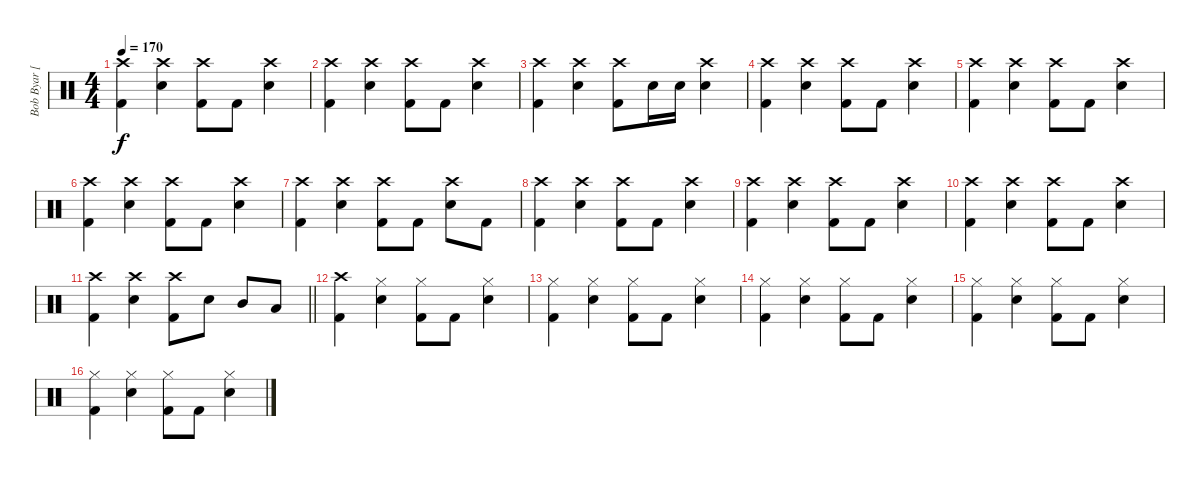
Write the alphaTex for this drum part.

\track ("Bob Byar [Drums]" "Bob Byar [") {instrument percussion}
\staff {score}
\articulation defaults
\ts (4 4)
\tempo 170
\clef neutral
\ks c
("Crash high (hit)" "Kick (hit) 2").4{dy f} ("Crash high (hit)" "Electric Snare (hit)").4 ("Crash high (hit)" "Kick (hit) 2").8 "Kick (hit) 2".8 ("Crash high (hit)" "Electric Snare (hit)").4 |
("Crash high (hit)" "Kick (hit) 2").4 ("Crash high (hit)" "Electric Snare (hit)").4 ("Crash high (hit)" "Kick (hit) 2").8 "Kick (hit) 2".8 ("Crash high (hit)" "Electric Snare (hit)").4 |
("Crash high (hit)" "Kick (hit) 2").4 ("Crash high (hit)" "Electric Snare (hit)").4 ("Crash high (hit)" "Kick (hit) 2").8 "Electric Snare (hit)".16 "Electric Snare (hit)".16 ("Crash high (hit)" "Electric Snare (hit)").4 |
("Crash high (hit)" "Kick (hit) 2").4 ("Crash high (hit)" "Electric Snare (hit)").4 ("Crash high (hit)" "Kick (hit) 2").8 "Kick (hit) 2".8 ("Crash high (hit)" "Electric Snare (hit)").4 |
("Crash high (hit)" "Kick (hit) 2").4 ("Crash high (hit)" "Electric Snare (hit)").4 ("Crash high (hit)" "Kick (hit) 2").8 "Kick (hit) 2".8 ("Crash high (hit)" "Electric Snare (hit)").4 |
("Crash high (hit)" "Kick (hit) 2").4 ("Crash high (hit)" "Electric Snare (hit)").4 ("Crash high (hit)" "Kick (hit) 2").8 "Kick (hit) 2".8 ("Crash high (hit)" "Electric Snare (hit)").4 |
("Crash high (hit)" "Kick (hit) 2").4 ("Crash high (hit)" "Electric Snare (hit)").4 ("Crash high (hit)" "Kick (hit) 2").8 "Kick (hit) 2".8 ("Crash high (hit)" "Electric Snare (hit)").8 "Kick (hit) 2".8 |
("Crash high (hit)" "Kick (hit) 2").4 ("Crash high (hit)" "Electric Snare (hit)").4 ("Crash high (hit)" "Kick (hit) 2").8 "Kick (hit) 2".8 ("Crash high (hit)" "Electric Snare (hit)").4 |
("Crash high (hit)" "Kick (hit) 2").4 ("Crash high (hit)" "Electric Snare (hit)").4 ("Crash high (hit)" "Kick (hit) 2").8 "Kick (hit) 2".8 ("Crash high (hit)" "Electric Snare (hit)").4 |
("Crash high (hit)" "Kick (hit) 2").4 ("Crash high (hit)" "Electric Snare (hit)").4 ("Crash high (hit)" "Kick (hit) 2").8 "Kick (hit) 2".8 ("Crash high (hit)" "Electric Snare (hit)").4 |
\barLineRight lightlight
("Crash high (hit)" "Kick (hit) 2").4 ("Crash high (hit)" "Electric Snare (hit)").4 ("Crash high (hit)" "Kick (hit) 2").8 "Electric Snare (hit)".8 "Mid Tom (hit)".8 "Low Tom (hit)".8 |
("Crash high (hit)" "Kick (hit) 2").4 ("Hi-Hat (closed)" "Electric Snare (hit)").4 ("Hi-Hat (closed)" "Kick (hit) 2").8 "Kick (hit) 2".8 ("Hi-Hat (closed)" "Electric Snare (hit)").4 |
("Hi-Hat (closed)" "Kick (hit) 2").4 ("Hi-Hat (closed)" "Electric Snare (hit)").4 ("Hi-Hat (closed)" "Kick (hit) 2").8 "Kick (hit) 2".8 ("Hi-Hat (closed)" "Electric Snare (hit)").4 |
("Hi-Hat (closed)" "Kick (hit) 2").4 ("Hi-Hat (closed)" "Electric Snare (hit)").4 ("Hi-Hat (closed)" "Kick (hit) 2").8 "Kick (hit) 2".8 ("Hi-Hat (closed)" "Electric Snare (hit)").4 |
("Hi-Hat (closed)" "Kick (hit) 2").4 ("Hi-Hat (closed)" "Electric Snare (hit)").4 ("Hi-Hat (closed)" "Kick (hit) 2").8 "Kick (hit) 2".8 ("Hi-Hat (closed)" "Electric Snare (hit)").4 |
("Hi-Hat (closed)" "Kick (hit) 2").4 ("Hi-Hat (closed)" "Electric Snare (hit)").4 ("Hi-Hat (closed)" "Kick (hit) 2").8 "Kick (hit) 2".8 ("Hi-Hat (closed)" "Electric Snare (hit)").4
